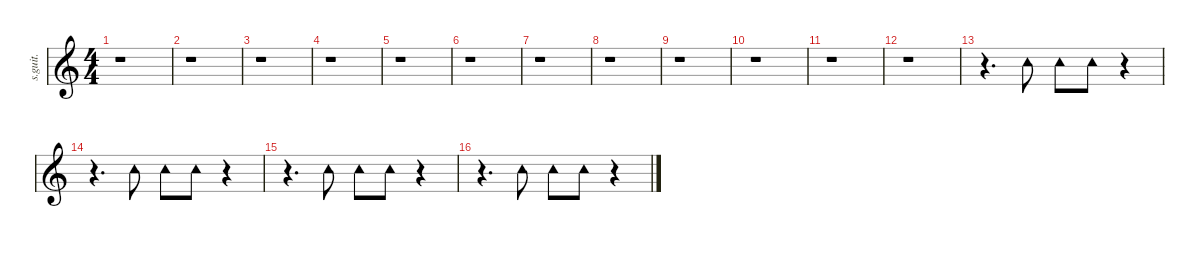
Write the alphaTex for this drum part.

\defaultSystemsLayout 4
\hideDynamics
\bracketExtendMode nobrackets
\track ("Tambourine" "s.guit.") {instrument percussion}
\staff {score}
\articulation defaults
\ts (4 4)
\beaming (8 2 2 2 2)
\tempo (74 hide)
\clef g2
\ks c
r.1{dy ff} |
r.1 |
r.1 |
\tempo (82 hide)
r.1 |
r.1 |
r.1 |
r.1 |
r.1 |
r.1 |
r.1 |
r.1 |
r.1 |
r.4{d} "Tambourine (hit)".8{lyrics (0 "") lyrics (1 "") lyrics (2 "") lyrics (3 "") lyrics (4 "")} "Tambourine (hit)".8{lyrics (0 "") lyrics (1 "") lyrics (2 "") lyrics (3 "") lyrics (4 "")} "Tambourine (hit)".8{lyrics (0 "") lyrics (1 "") lyrics (2 "") lyrics (3 "") lyrics (4 "")} r.4 |
r.4{d} "Tambourine (hit)".8{lyrics (0 "") lyrics (1 "") lyrics (2 "") lyrics (3 "") lyrics (4 "")} "Tambourine (hit)".8{lyrics (0 "") lyrics (1 "") lyrics (2 "") lyrics (3 "") lyrics (4 "")} "Tambourine (hit)".8{lyrics (0 "") lyrics (1 "") lyrics (2 "") lyrics (3 "") lyrics (4 "")} r.4 |
r.4{d} "Tambourine (hit)".8{lyrics (0 "") lyrics (1 "") lyrics (2 "") lyrics (3 "") lyrics (4 "")} "Tambourine (hit)".8{lyrics (0 "") lyrics (1 "") lyrics (2 "") lyrics (3 "") lyrics (4 "")} "Tambourine (hit)".8{lyrics (0 "") lyrics (1 "") lyrics (2 "") lyrics (3 "") lyrics (4 "")} r.4 |
r.4{d} "Tambourine (hit)".8{lyrics (0 "") lyrics (1 "") lyrics (2 "") lyrics (3 "") lyrics (4 "")} "Tambourine (hit)".8{lyrics (0 "") lyrics (1 "") lyrics (2 "") lyrics (3 "") lyrics (4 "")} "Tambourine (hit)".8{lyrics (0 "") lyrics (1 "") lyrics (2 "") lyrics (3 "") lyrics (4 "")} r.4
